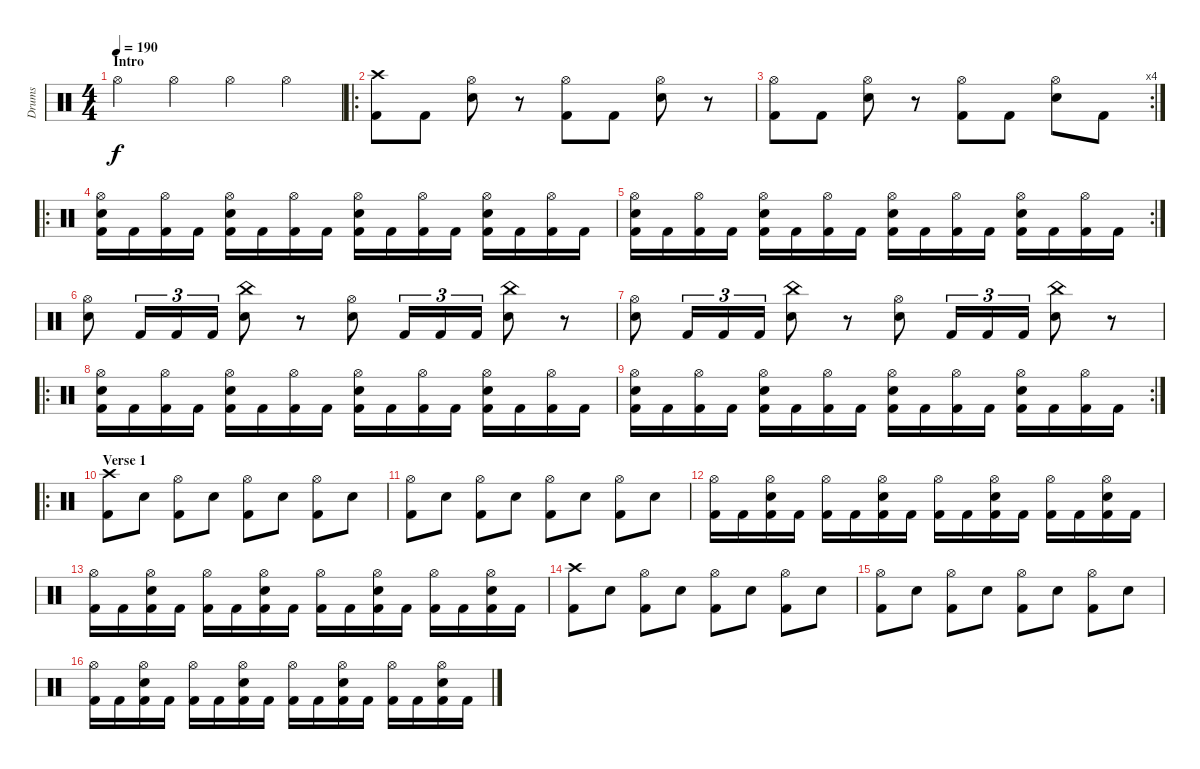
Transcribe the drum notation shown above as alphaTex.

\track ("Drums" "Drums") {instrument percussion}
\staff {score}
\articulation defaults
\ts (4 4)
\section ("" "Intro")
\tempo 190
\clef neutral
\ks c "Hi-Hat (open)".4{dy f} "Hi-Hat (open)".4 "Hi-Hat (open)".4 "Hi-Hat (open)".4
|
\ro
("Crash high (hit)" "Kick (hit) 2").8 "Kick (hit) 2".8 ("Hi-Hat (open)" "Electric Snare (hit)").8 r.8 ("Hi-Hat (open)" "Kick (hit) 2").8 "Kick (hit) 2".8 ("Hi-Hat (open)" "Electric Snare (hit)").8 r.8 |
\rc 4
("Hi-Hat (open)" "Kick (hit) 2").8 "Kick (hit) 2".8 ("Hi-Hat (open)" "Electric Snare (hit)").8 r.8 ("Hi-Hat (open)" "Kick (hit) 2").8 "Kick (hit) 2".8 ("Hi-Hat (open)" "Electric Snare (hit)").8 "Kick (hit) 2".8 |
\ro
("Kick (hit) 2" "Hi-Hat (open)" "Electric Snare (hit)").16 "Kick (hit) 2".16 ("Kick (hit) 2" "Hi-Hat (open)").16 "Kick (hit) 2".16 ("Kick (hit) 2" "Hi-Hat (open)" "Electric Snare (hit)").16 "Kick (hit) 2".16 ("Kick (hit) 2" "Hi-Hat (open)").16 "Kick (hit) 2".16 ("Kick (hit) 2" "Hi-Hat (open)" "Electric Snare (hit)").16 "Kick (hit) 2".16 ("Kick (hit) 2" "Hi-Hat (open)").16 "Kick (hit) 2".16 ("Kick (hit) 2" "Hi-Hat (open)" "Electric Snare (hit)").16 "Kick (hit) 2".16 ("Kick (hit) 2" "Hi-Hat (open)").16 "Kick (hit) 2".16 |
\rc 2
("Kick (hit) 2" "Hi-Hat (open)" "Electric Snare (hit)").16 "Kick (hit) 2".16 ("Kick (hit) 2" "Hi-Hat (open)").16 "Kick (hit) 2".16 ("Kick (hit) 2" "Hi-Hat (open)" "Electric Snare (hit)").16 "Kick (hit) 2".16 ("Kick (hit) 2" "Hi-Hat (open)").16 "Kick (hit) 2".16 ("Kick (hit) 2" "Hi-Hat (open)" "Electric Snare (hit)").16 "Kick (hit) 2".16 ("Kick (hit) 2" "Hi-Hat (open)").16 "Kick (hit) 2".16 ("Kick (hit) 2" "Hi-Hat (open)" "Electric Snare (hit)").16 "Kick (hit) 2".16 ("Kick (hit) 2" "Hi-Hat (open)").16 "Kick (hit) 2".16 |
("Electric Snare (hit)" "Hi-Hat (open)").8 "Kick (hit) 2".16{tu (3 2)} "Kick (hit) 2".16{tu (3 2)} "Kick (hit) 2".16{tu (3 2)} ("Electric Snare (hit)" "China (hit)").8 r.8 ("Electric Snare (hit)" "Hi-Hat (open)").8 "Kick (hit) 2".16{tu (3 2)} "Kick (hit) 2".16{tu (3 2)} "Kick (hit) 2".16{tu (3 2)} ("Electric Snare (hit)" "China (hit)").8 r.8 |
("Electric Snare (hit)" "Hi-Hat (open)").8 "Kick (hit) 2".16{tu (3 2)} "Kick (hit) 2".16{tu (3 2)} "Kick (hit) 2".16{tu (3 2)} ("Electric Snare (hit)" "China (hit)").8 r.8 ("Electric Snare (hit)" "Hi-Hat (open)").8 "Kick (hit) 2".16{tu (3 2)} "Kick (hit) 2".16{tu (3 2)} "Kick (hit) 2".16{tu (3 2)} ("Electric Snare (hit)" "China (hit)").8 r.8 |
\ro
("Kick (hit) 2" "Hi-Hat (open)" "Electric Snare (hit)").16 "Kick (hit) 2".16 ("Kick (hit) 2" "Hi-Hat (open)").16 "Kick (hit) 2".16 ("Kick (hit) 2" "Hi-Hat (open)" "Electric Snare (hit)").16 "Kick (hit) 2".16 ("Kick (hit) 2" "Hi-Hat (open)").16 "Kick (hit) 2".16 ("Kick (hit) 2" "Hi-Hat (open)" "Electric Snare (hit)").16 "Kick (hit) 2".16 ("Kick (hit) 2" "Hi-Hat (open)").16 "Kick (hit) 2".16 ("Kick (hit) 2" "Hi-Hat (open)" "Electric Snare (hit)").16 "Kick (hit) 2".16 ("Kick (hit) 2" "Hi-Hat (open)").16 "Kick (hit) 2".16 |
\rc 2
("Kick (hit) 2" "Hi-Hat (open)" "Electric Snare (hit)").16 "Kick (hit) 2".16 ("Kick (hit) 2" "Hi-Hat (open)").16 "Kick (hit) 2".16 ("Kick (hit) 2" "Hi-Hat (open)" "Electric Snare (hit)").16 "Kick (hit) 2".16 ("Kick (hit) 2" "Hi-Hat (open)").16 "Kick (hit) 2".16 ("Kick (hit) 2" "Hi-Hat (open)" "Electric Snare (hit)").16 "Kick (hit) 2".16 ("Kick (hit) 2" "Hi-Hat (open)").16 "Kick (hit) 2".16 ("Kick (hit) 2" "Hi-Hat (open)" "Electric Snare (hit)").16 "Kick (hit) 2".16 ("Kick (hit) 2" "Hi-Hat (open)").16 "Kick (hit) 2".16 |
\ro
\section ("" "Verse 1")
("Kick (hit) 2" "Crash high (hit)").8 "Electric Snare (hit)".8 ("Kick (hit) 2" "Hi-Hat (open)").8 "Electric Snare (hit)".8 ("Kick (hit) 2" "Hi-Hat (open)").8 "Electric Snare (hit)".8 ("Kick (hit) 2" "Hi-Hat (open)").8 "Electric Snare (hit)".8 |
("Kick (hit) 2" "Hi-Hat (open)").8 "Electric Snare (hit)".8 ("Kick (hit) 2" "Hi-Hat (open)").8 "Electric Snare (hit)".8 ("Kick (hit) 2" "Hi-Hat (open)").8 "Electric Snare (hit)".8 ("Kick (hit) 2" "Hi-Hat (open)").8 "Electric Snare (hit)".8 |
("Kick (hit) 2" "Hi-Hat (open)").16 "Kick (hit) 2".16 ("Kick (hit) 2" "Hi-Hat (open)" "Electric Snare (hit)").16 "Kick (hit) 2".16 ("Kick (hit) 2" "Hi-Hat (open)").16 "Kick (hit) 2".16 ("Kick (hit) 2" "Hi-Hat (open)" "Electric Snare (hit)").16 "Kick (hit) 2".16 ("Kick (hit) 2" "Hi-Hat (open)").16 "Kick (hit) 2".16 ("Kick (hit) 2" "Hi-Hat (open)" "Electric Snare (hit)").16 "Kick (hit) 2".16 ("Kick (hit) 2" "Hi-Hat (open)").16 "Kick (hit) 2".16 ("Kick (hit) 2" "Hi-Hat (open)" "Electric Snare (hit)").16 "Kick (hit) 2".16 |
("Kick (hit) 2" "Hi-Hat (open)").16 "Kick (hit) 2".16 ("Kick (hit) 2" "Hi-Hat (open)" "Electric Snare (hit)").16 "Kick (hit) 2".16 ("Kick (hit) 2" "Hi-Hat (open)").16 "Kick (hit) 2".16 ("Kick (hit) 2" "Hi-Hat (open)" "Electric Snare (hit)").16 "Kick (hit) 2".16 ("Kick (hit) 2" "Hi-Hat (open)").16 "Kick (hit) 2".16 ("Kick (hit) 2" "Hi-Hat (open)" "Electric Snare (hit)").16 "Kick (hit) 2".16 ("Kick (hit) 2" "Hi-Hat (open)").16 "Kick (hit) 2".16 ("Kick (hit) 2" "Hi-Hat (open)" "Electric Snare (hit)").16 "Kick (hit) 2".16 |
("Kick (hit) 2" "Crash high (hit)").8 "Electric Snare (hit)".8 ("Kick (hit) 2" "Hi-Hat (open)").8 "Electric Snare (hit)".8 ("Kick (hit) 2" "Hi-Hat (open)").8 "Electric Snare (hit)".8 ("Kick (hit) 2" "Hi-Hat (open)").8 "Electric Snare (hit)".8 |
("Kick (hit) 2" "Hi-Hat (open)").8 "Electric Snare (hit)".8 ("Kick (hit) 2" "Hi-Hat (open)").8 "Electric Snare (hit)".8 ("Kick (hit) 2" "Hi-Hat (open)").8 "Electric Snare (hit)".8 ("Kick (hit) 2" "Hi-Hat (open)").8 "Electric Snare (hit)".8 |
("Kick (hit) 2" "Hi-Hat (open)").16 "Kick (hit) 2".16 ("Kick (hit) 2" "Hi-Hat (open)" "Electric Snare (hit)").16 "Kick (hit) 2".16 ("Kick (hit) 2" "Hi-Hat (open)").16 "Kick (hit) 2".16 ("Kick (hit) 2" "Hi-Hat (open)" "Electric Snare (hit)").16 "Kick (hit) 2".16 ("Kick (hit) 2" "Hi-Hat (open)").16 "Kick (hit) 2".16 ("Kick (hit) 2" "Hi-Hat (open)" "Electric Snare (hit)").16 "Kick (hit) 2".16 ("Kick (hit) 2" "Hi-Hat (open)").16 "Kick (hit) 2".16 ("Kick (hit) 2" "Hi-Hat (open)" "Electric Snare (hit)").16 "Kick (hit) 2".16
